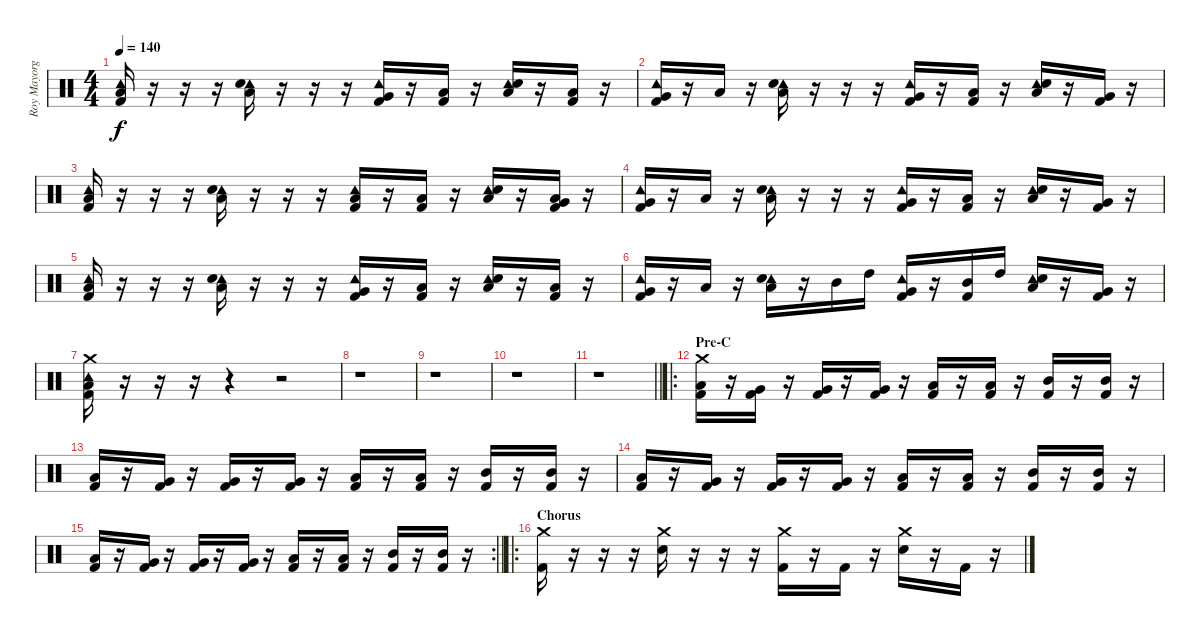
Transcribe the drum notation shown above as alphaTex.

\track ("Roy Mayorga" "Roy Mayorg") {instrument percussion}
\staff {score}
\articulation defaults
\ts (4 4)
\tempo 140
\clef neutral
\ks c
("Tambourine (hit)" "Low Tom (hit)" "Kick (hit) 2").16{dy f} r.16 r.16 r.16 ("Tambourine (hit)" "Low Tom (hit)" "Snare (hit) 2").16 r.16 r.16 r.16 ("Tambourine (hit)" "Very Low Tom (hit)" "Kick (hit) 2").16 r.16 ("Low Tom (hit)" "Kick (hit) 2").16 r.16 ("Tambourine (hit)" "Low Tom (hit)" "Snare (hit) 2").16 r.16 ("Low Floor Tom (hit)" "Kick (hit) 2").16 r.16 |
("Tambourine (hit)" "Very Low Tom (hit)" "Kick (hit) 2").16 r.16 "Low Tom (hit)".16 r.16 ("Tambourine (hit)" "Low Tom (hit)" "Snare (hit) 2").16 r.16 r.16 r.16 ("Tambourine (hit)" "Very Low Tom (hit)" "Kick (hit) 2").16 r.16 ("Low Tom (hit)" "Kick (hit) 2").16 r.16 ("Tambourine (hit)" "Low Tom (hit)" "Snare (hit) 2").16 r.16 ("Very Low Tom (hit)" "Kick (hit) 2").16 r.16 |
("Tambourine (hit)" "Low Tom (hit)" "Kick (hit) 2").16 r.16 r.16 r.16 ("Tambourine (hit)" "Low Tom (hit)" "Snare (hit) 2").16 r.16 r.16 r.16 ("Tambourine (hit)" "Low Tom (hit)" "Kick (hit) 2").16 r.16 ("Low Floor Tom (hit)" "Kick (hit) 2").16 r.16 ("Tambourine (hit)" "Low Tom (hit)" "Snare (hit) 2").16 r.16 ("Low Floor Tom (hit)" "Very Low Tom (hit)" "Kick (hit) 2").16 r.16 |
("Tambourine (hit)" "Very Low Tom (hit)" "Kick (hit) 2").16 r.16 "Low Tom (hit)".16 r.16 ("Tambourine (hit)" "Low Tom (hit)" "Snare (hit) 2").16 r.16 r.16 r.16 ("Tambourine (hit)" "Very Low Tom (hit)" "Kick (hit) 2").16 r.16 ("Low Tom (hit)" "Kick (hit) 2").16 r.16 ("Tambourine (hit)" "Low Tom (hit)" "Snare (hit) 2").16 r.16 ("Very Low Tom (hit)" "Kick (hit) 2").16 r.16 |
("Tambourine (hit)" "Low Tom (hit)" "Kick (hit) 2").16 r.16 r.16 r.16 ("Tambourine (hit)" "Low Tom (hit)" "Snare (hit) 2").16 r.16 r.16 r.16 ("Tambourine (hit)" "Very Low Tom (hit)" "Kick (hit) 2").16 r.16 ("Low Tom (hit)" "Kick (hit) 2").16 r.16 ("Tambourine (hit)" "Low Tom (hit)" "Snare (hit) 2").16 r.16 ("Low Floor Tom (hit)" "Kick (hit) 2").16 r.16 |
("Tambourine (hit)" "Very Low Tom (hit)" "Kick (hit) 2").16 r.16 "Low Tom (hit)".16 r.16 ("Tambourine (hit)" "Low Tom (hit)" "Snare (hit) 2").16 r.16 "Mid Tom (hit)".16 "High Tom (hit)".16 ("Tambourine (hit)" "Very Low Tom (hit)" "Kick (hit) 2").16 r.16 ("Mid Tom (hit)" "Kick (hit) 2").16 "High Tom (hit)".16 ("Tambourine (hit)" "Low Tom (hit)" "Snare (hit) 2").16 r.16 ("Very Low Tom (hit)" "Kick (hit) 2").16 r.16 |
("Crash medium (hit)" "Tambourine (hit)" "Low Tom (hit)" "Kick (hit) 2").16 r.16 r.16 r.16 r.4 r.2 |
r.1 |
r.1 |
r.1 |
\barLineRight lightlight
r.1 |
\ro
\section ("" "Pre-C")
("Crash medium (hit)" "Low Tom (hit)" "Kick (hit) 2").16 r.16 ("Very Low Tom (hit)" "Kick (hit) 2").16 r.16 ("Very Low Tom (hit)" "Kick (hit) 2").16 r.16 ("Very Low Tom (hit)" "Kick (hit) 2").16 r.16 ("Low Tom (hit)" "Kick (hit) 2").16 r.16 ("Low Tom (hit)" "Kick (hit) 2").16 r.16 ("Mid Tom (hit)" "Kick (hit) 2").16 r.16 ("Mid Tom (hit)" "Kick (hit) 2").16 r.16 |
("Low Tom (hit)" "Kick (hit) 2").16 r.16 ("Very Low Tom (hit)" "Kick (hit) 2").16 r.16 ("Very Low Tom (hit)" "Kick (hit) 2").16 r.16 ("Very Low Tom (hit)" "Kick (hit) 2").16 r.16 ("Low Tom (hit)" "Kick (hit) 2").16 r.16 ("Low Tom (hit)" "Kick (hit) 2").16 r.16 ("Mid Tom (hit)" "Kick (hit) 2").16 r.16 ("Mid Tom (hit)" "Kick (hit) 2").16 r.16 |
("Low Tom (hit)" "Kick (hit) 2").16 r.16 ("Very Low Tom (hit)" "Kick (hit) 2").16 r.16 ("Very Low Tom (hit)" "Kick (hit) 2").16 r.16 ("Very Low Tom (hit)" "Kick (hit) 2").16 r.16 ("Low Tom (hit)" "Kick (hit) 2").16 r.16 ("Low Tom (hit)" "Kick (hit) 2").16 r.16 ("Mid Tom (hit)" "Kick (hit) 2").16 r.16 ("Mid Tom (hit)" "Kick (hit) 2").16 r.16 |
\rc 2
\barLineRight lightlight
("Low Tom (hit)" "Kick (hit) 2").16 r.16 ("Very Low Tom (hit)" "Kick (hit) 2").16 r.16 ("Very Low Tom (hit)" "Kick (hit) 2").16 r.16 ("Very Low Tom (hit)" "Kick (hit) 2").16 r.16 ("Low Tom (hit)" "Kick (hit) 2").16 r.16 ("Low Tom (hit)" "Kick (hit) 2").16 r.16 ("Mid Tom (hit)" "Kick (hit) 2").16 r.16 ("Mid Tom (hit)" "Kick (hit) 2").16 r.16 |
\ro
\section ("" "Chorus")
("Crash medium (hit)" "Kick (hit) 2").16 r.16 r.16 r.16 ("Crash medium (hit)" "Snare (hit) 2").16 r.16 r.16 r.16 ("Crash medium (hit)" "Kick (hit) 2").16 r.16 "Kick (hit) 2".16 r.16 ("Crash medium (hit)" "Snare (hit) 2").16 r.16 "Kick (hit) 2".16 r.16
